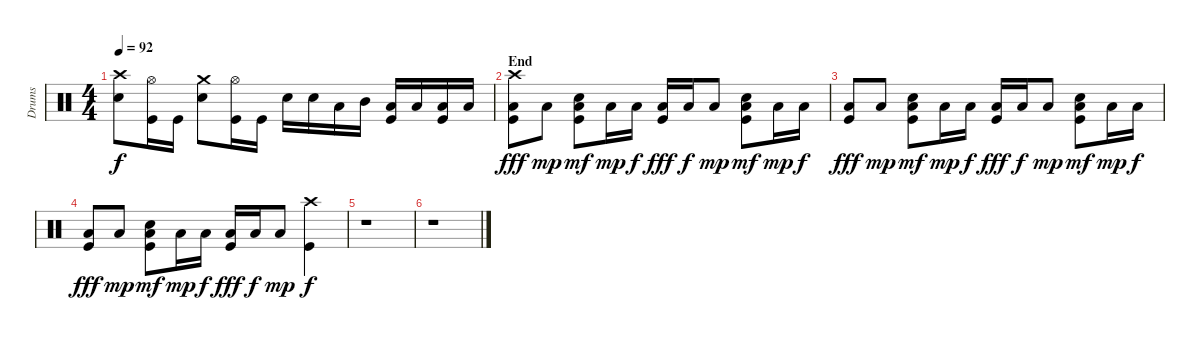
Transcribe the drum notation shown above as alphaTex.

\track ("Drums" "Drums") {instrument percussion}
\staff {score}
\articulation defaults
\ts (4 4)
\tempo 92
\clef neutral
\ks c
("Crash high (hit)" "Electric Snare (hit)").8{dy f} ("Hi-Hat (open)" "Kick (hit)").16 "Kick (hit)".16 ("Crash medium (hit)" "Electric Snare (hit)").8 ("Hi-Hat (open)" "Kick (hit)").16 "Kick (hit)".16 "Electric Snare (hit)".16 "Electric Snare (hit)".16 "Low Tom (hit)".16 "Mid Tom (hit)".16 ("Low Tom (hit)" "Kick (hit)").16 "Low Tom (hit)".16 ("Low Floor Tom (hit)" "Kick (hit)").16 "Low Floor Tom (hit)".16 |
\section ("" "End")
("Crash high (hit)" "Low Floor Tom (hit)" "Kick (hit)").8{dy fff} "Low Floor Tom (hit)".8{dy mp} ("Electric Snare (hit)" "Low Floor Tom (hit)" "Kick (hit)").8{dy mf} "Low Floor Tom (hit)".16{dy mp} "Low Tom (hit)".16{dy f} ("Low Floor Tom (hit)" "Kick (hit)").16{dy fff} "Low Tom (hit)".16{dy f} "Low Floor Tom (hit)".8{dy mp} ("Electric Snare (hit)" "Low Floor Tom (hit)" "Kick (hit)").8{dy mf} "Low Floor Tom (hit)".16{dy mp} "Low Tom (hit)".16{dy f} |
("Low Floor Tom (hit)" "Kick (hit)").8{dy fff} "Low Floor Tom (hit)".8{dy mp} ("Electric Snare (hit)" "Low Floor Tom (hit)" "Kick (hit)").8{dy mf} "Low Floor Tom (hit)".16{dy mp} "Low Tom (hit)".16{dy f} ("Low Floor Tom (hit)" "Kick (hit)").16{dy fff} "Low Tom (hit)".16{dy f} "Low Floor Tom (hit)".8{dy mp} ("Electric Snare (hit)" "Low Floor Tom (hit)" "Kick (hit)").8{dy mf} "Low Floor Tom (hit)".16{dy mp} "Low Tom (hit)".16{dy f} |
("Low Floor Tom (hit)" "Kick (hit)").8{dy fff} "Low Floor Tom (hit)".8{dy mp} ("Electric Snare (hit)" "Low Floor Tom (hit)" "Kick (hit)").8{dy mf} "Low Floor Tom (hit)".16{dy mp} "Low Tom (hit)".16{dy f} ("Low Floor Tom (hit)" "Kick (hit)").16{dy fff} "Low Tom (hit)".16{dy f} "Low Floor Tom (hit)".8{dy mp} ("Crash high (hit)" "Kick (hit)").4{dy f} |
r.1 |
r.1
